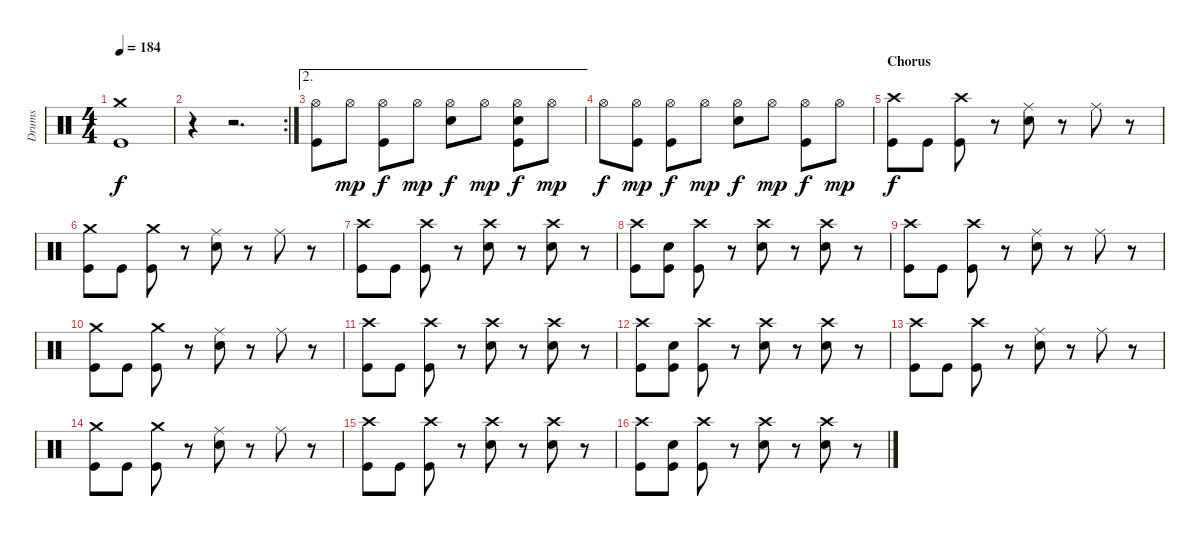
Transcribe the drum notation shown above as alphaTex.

\track ("Drums" "Drums") {instrument percussion}
\staff {score}
\articulation defaults
\ts (4 4)
\tempo 184
\clef neutral
\ks c
("Crash medium (hit)" "Kick (hit)").1{dy f} |
\rc 2
r.4 r.2{d} |
\ae 2
("Hi-Hat (open)" "Kick (hit)").8 "Hi-Hat (open)".8{dy mp} ("Hi-Hat (open)" "Kick (hit)").8{dy f} "Hi-Hat (open)".8{dy mp} ("Hi-Hat (open)" "Snare (hit) 2").8{dy f} "Hi-Hat (open)".8{dy mp} ("Hi-Hat (open)" "Snare (hit) 2" "Kick (hit)").8{dy f} "Hi-Hat (open)".8{dy mp} |
"Hi-Hat (open)".8{dy f} ("Hi-Hat (open)" "Kick (hit)").8{dy mp} ("Hi-Hat (open)" "Kick (hit)").8{dy f} "Hi-Hat (open)".8{dy mp} ("Hi-Hat (open)" "Snare (hit) 2").8{dy f} "Hi-Hat (open)".8{dy mp} ("Hi-Hat (open)" "Kick (hit)").8{dy f} "Hi-Hat (open)".8{dy mp} |
\section ("" "Chorus")
("Crash high (hit)" "Kick (hit)").8{dy f} "Kick (hit)".8 ("Crash high (hit)" "Kick (hit)").8 r.8 ("Ride (middle)" "Snare (hit) 2").8 r.8 "Ride (middle)".8 r.8 |
("Crash medium (hit)" "Kick (hit)").8 "Kick (hit)".8 ("Crash medium (hit)" "Kick (hit)").8 r.8 ("Ride (middle)" "Snare (hit) 2").8 r.8 "Ride (middle)".8 r.8 |
("Crash high (hit)" "Kick (hit)").8 "Kick (hit)".8 ("Crash high (hit)" "Kick (hit)").8 r.8 ("Crash high (hit)" "Snare (hit) 2").8 r.8 ("Crash high (hit)" "Snare (hit) 2").8 r.8 |
("Crash high (hit)" "Kick (hit)").8 ("Snare (hit) 2" "Kick (hit)").8 ("Crash high (hit)" "Kick (hit)").8 r.8 ("Crash high (hit)" "Snare (hit) 2").8 r.8 ("Crash high (hit)" "Snare (hit) 2").8 r.8 |
("Crash high (hit)" "Kick (hit)").8 "Kick (hit)".8 ("Crash high (hit)" "Kick (hit)").8 r.8 ("Ride (middle)" "Snare (hit) 2").8 r.8 "Ride (middle)".8 r.8 |
("Crash medium (hit)" "Kick (hit)").8 "Kick (hit)".8 ("Crash medium (hit)" "Kick (hit)").8 r.8 ("Ride (middle)" "Snare (hit) 2").8 r.8 "Ride (middle)".8 r.8 |
("Crash high (hit)" "Kick (hit)").8 "Kick (hit)".8 ("Crash high (hit)" "Kick (hit)").8 r.8 ("Crash high (hit)" "Snare (hit) 2").8 r.8 ("Crash high (hit)" "Snare (hit) 2").8 r.8 |
("Crash high (hit)" "Kick (hit)").8 ("Snare (hit) 2" "Kick (hit)").8 ("Crash high (hit)" "Kick (hit)").8 r.8 ("Crash high (hit)" "Snare (hit) 2").8 r.8 ("Crash high (hit)" "Snare (hit) 2").8 r.8 |
("Crash high (hit)" "Kick (hit)").8 "Kick (hit)".8 ("Crash high (hit)" "Kick (hit)").8 r.8 ("Ride (middle)" "Snare (hit) 2").8 r.8 "Ride (middle)".8 r.8 |
("Crash medium (hit)" "Kick (hit)").8 "Kick (hit)".8 ("Crash medium (hit)" "Kick (hit)").8 r.8 ("Ride (middle)" "Snare (hit) 2").8 r.8 "Ride (middle)".8 r.8 |
("Crash high (hit)" "Kick (hit)").8 "Kick (hit)".8 ("Crash high (hit)" "Kick (hit)").8 r.8 ("Crash high (hit)" "Snare (hit) 2").8 r.8 ("Crash high (hit)" "Snare (hit) 2").8 r.8 |
("Crash high (hit)" "Kick (hit)").8 ("Snare (hit) 2" "Kick (hit)").8 ("Crash high (hit)" "Kick (hit)").8 r.8 ("Crash high (hit)" "Snare (hit) 2").8 r.8 ("Crash high (hit)" "Snare (hit) 2").8 r.8
